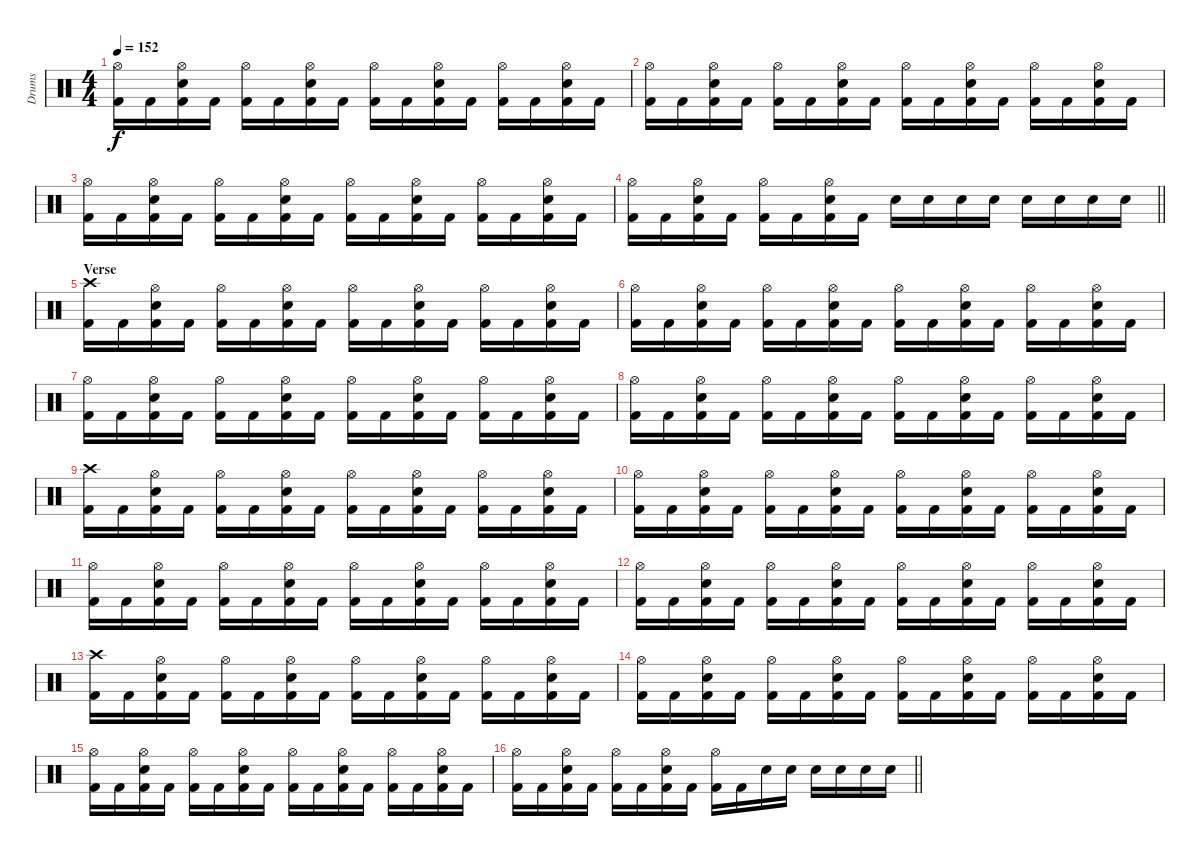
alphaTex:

\track ("Drums" "Drums") {instrument percussion}
\staff {score}
\articulation defaults
\ts (4 4)
\tempo 152
\clef neutral
\ks c
("Hi-Hat (open)" "Kick (hit) 2").16{dy f} "Kick (hit) 2".16 ("Hi-Hat (open)" "Snare (hit) 2" "Kick (hit) 2").16 "Kick (hit) 2".16 ("Hi-Hat (open)" "Kick (hit) 2").16 "Kick (hit) 2".16 ("Hi-Hat (open)" "Snare (hit) 2" "Kick (hit) 2").16 "Kick (hit) 2".16 ("Hi-Hat (open)" "Kick (hit) 2").16 "Kick (hit) 2".16 ("Hi-Hat (open)" "Snare (hit) 2" "Kick (hit) 2").16 "Kick (hit) 2".16 ("Hi-Hat (open)" "Kick (hit) 2").16 "Kick (hit) 2".16 ("Hi-Hat (open)" "Snare (hit) 2" "Kick (hit) 2").16 "Kick (hit) 2".16 |
("Hi-Hat (open)" "Kick (hit) 2").16 "Kick (hit) 2".16 ("Hi-Hat (open)" "Snare (hit) 2" "Kick (hit) 2").16 "Kick (hit) 2".16 ("Hi-Hat (open)" "Kick (hit) 2").16 "Kick (hit) 2".16 ("Hi-Hat (open)" "Snare (hit) 2" "Kick (hit) 2").16 "Kick (hit) 2".16 ("Hi-Hat (open)" "Kick (hit) 2").16 "Kick (hit) 2".16 ("Hi-Hat (open)" "Snare (hit) 2" "Kick (hit) 2").16 "Kick (hit) 2".16 ("Hi-Hat (open)" "Kick (hit) 2").16 "Kick (hit) 2".16 ("Hi-Hat (open)" "Snare (hit) 2" "Kick (hit) 2").16 "Kick (hit) 2".16 |
("Hi-Hat (open)" "Kick (hit) 2").16 "Kick (hit) 2".16 ("Hi-Hat (open)" "Snare (hit) 2" "Kick (hit) 2").16 "Kick (hit) 2".16 ("Hi-Hat (open)" "Kick (hit) 2").16 "Kick (hit) 2".16 ("Hi-Hat (open)" "Snare (hit) 2" "Kick (hit) 2").16 "Kick (hit) 2".16 ("Hi-Hat (open)" "Kick (hit) 2").16 "Kick (hit) 2".16 ("Hi-Hat (open)" "Snare (hit) 2" "Kick (hit) 2").16 "Kick (hit) 2".16 ("Hi-Hat (open)" "Kick (hit) 2").16 "Kick (hit) 2".16 ("Hi-Hat (open)" "Snare (hit) 2" "Kick (hit) 2").16 "Kick (hit) 2".16 |
\barLineRight lightlight
("Hi-Hat (open)" "Kick (hit) 2").16 "Kick (hit) 2".16 ("Hi-Hat (open)" "Snare (hit) 2" "Kick (hit) 2").16 "Kick (hit) 2".16 ("Hi-Hat (open)" "Kick (hit) 2").16 "Kick (hit) 2".16 ("Hi-Hat (open)" "Snare (hit) 2" "Kick (hit) 2").16 "Kick (hit) 2".16 "Snare (hit) 2".16 "Snare (hit) 2".16 "Snare (hit) 2".16 "Snare (hit) 2".16 "Snare (hit) 2".16 "Snare (hit) 2".16 "Snare (hit) 2".16 "Snare (hit) 2".16 |
\section ("" "Verse")
("Crash high (hit)" "Kick (hit) 2").16 "Kick (hit) 2".16 ("Hi-Hat (open)" "Snare (hit) 2" "Kick (hit) 2").16 "Kick (hit) 2".16 ("Hi-Hat (open)" "Kick (hit) 2").16 "Kick (hit) 2".16 ("Hi-Hat (open)" "Snare (hit) 2" "Kick (hit) 2").16 "Kick (hit) 2".16 ("Hi-Hat (open)" "Kick (hit) 2").16 "Kick (hit) 2".16 ("Hi-Hat (open)" "Snare (hit) 2" "Kick (hit) 2").16 "Kick (hit) 2".16 ("Hi-Hat (open)" "Kick (hit) 2").16 "Kick (hit) 2".16 ("Hi-Hat (open)" "Snare (hit) 2" "Kick (hit) 2").16 "Kick (hit) 2".16 |
("Hi-Hat (open)" "Kick (hit) 2").16 "Kick (hit) 2".16 ("Hi-Hat (open)" "Snare (hit) 2" "Kick (hit) 2").16 "Kick (hit) 2".16 ("Hi-Hat (open)" "Kick (hit) 2").16 "Kick (hit) 2".16 ("Hi-Hat (open)" "Snare (hit) 2" "Kick (hit) 2").16 "Kick (hit) 2".16 ("Hi-Hat (open)" "Kick (hit) 2").16 "Kick (hit) 2".16 ("Hi-Hat (open)" "Snare (hit) 2" "Kick (hit) 2").16 "Kick (hit) 2".16 ("Hi-Hat (open)" "Kick (hit) 2").16 "Kick (hit) 2".16 ("Hi-Hat (open)" "Snare (hit) 2" "Kick (hit) 2").16 "Kick (hit) 2".16 |
("Hi-Hat (open)" "Kick (hit) 2").16 "Kick (hit) 2".16 ("Hi-Hat (open)" "Snare (hit) 2" "Kick (hit) 2").16 "Kick (hit) 2".16 ("Hi-Hat (open)" "Kick (hit) 2").16 "Kick (hit) 2".16 ("Hi-Hat (open)" "Snare (hit) 2" "Kick (hit) 2").16 "Kick (hit) 2".16 ("Hi-Hat (open)" "Kick (hit) 2").16 "Kick (hit) 2".16 ("Hi-Hat (open)" "Snare (hit) 2" "Kick (hit) 2").16 "Kick (hit) 2".16 ("Hi-Hat (open)" "Kick (hit) 2").16 "Kick (hit) 2".16 ("Hi-Hat (open)" "Snare (hit) 2" "Kick (hit) 2").16 "Kick (hit) 2".16 |
("Hi-Hat (open)" "Kick (hit) 2").16 "Kick (hit) 2".16 ("Hi-Hat (open)" "Snare (hit) 2" "Kick (hit) 2").16 "Kick (hit) 2".16 ("Hi-Hat (open)" "Kick (hit) 2").16 "Kick (hit) 2".16 ("Hi-Hat (open)" "Snare (hit) 2" "Kick (hit) 2").16 "Kick (hit) 2".16 ("Hi-Hat (open)" "Kick (hit) 2").16 "Kick (hit) 2".16 ("Hi-Hat (open)" "Snare (hit) 2" "Kick (hit) 2").16 "Kick (hit) 2".16 ("Hi-Hat (open)" "Kick (hit) 2").16 "Kick (hit) 2".16 ("Hi-Hat (open)" "Snare (hit) 2" "Kick (hit) 2").16 "Kick (hit) 2".16 |
("Crash high (hit)" "Kick (hit) 2").16 "Kick (hit) 2".16 ("Hi-Hat (open)" "Snare (hit) 2" "Kick (hit) 2").16 "Kick (hit) 2".16 ("Hi-Hat (open)" "Kick (hit) 2").16 "Kick (hit) 2".16 ("Hi-Hat (open)" "Snare (hit) 2" "Kick (hit) 2").16 "Kick (hit) 2".16 ("Hi-Hat (open)" "Kick (hit) 2").16 "Kick (hit) 2".16 ("Hi-Hat (open)" "Snare (hit) 2" "Kick (hit) 2").16 "Kick (hit) 2".16 ("Hi-Hat (open)" "Kick (hit) 2").16 "Kick (hit) 2".16 ("Hi-Hat (open)" "Snare (hit) 2" "Kick (hit) 2").16 "Kick (hit) 2".16 |
("Hi-Hat (open)" "Kick (hit) 2").16 "Kick (hit) 2".16 ("Hi-Hat (open)" "Snare (hit) 2" "Kick (hit) 2").16 "Kick (hit) 2".16 ("Hi-Hat (open)" "Kick (hit) 2").16 "Kick (hit) 2".16 ("Hi-Hat (open)" "Snare (hit) 2" "Kick (hit) 2").16 "Kick (hit) 2".16 ("Hi-Hat (open)" "Kick (hit) 2").16 "Kick (hit) 2".16 ("Hi-Hat (open)" "Snare (hit) 2" "Kick (hit) 2").16 "Kick (hit) 2".16 ("Hi-Hat (open)" "Kick (hit) 2").16 "Kick (hit) 2".16 ("Hi-Hat (open)" "Snare (hit) 2" "Kick (hit) 2").16 "Kick (hit) 2".16 |
("Hi-Hat (open)" "Kick (hit) 2").16 "Kick (hit) 2".16 ("Hi-Hat (open)" "Snare (hit) 2" "Kick (hit) 2").16 "Kick (hit) 2".16 ("Hi-Hat (open)" "Kick (hit) 2").16 "Kick (hit) 2".16 ("Hi-Hat (open)" "Snare (hit) 2" "Kick (hit) 2").16 "Kick (hit) 2".16 ("Hi-Hat (open)" "Kick (hit) 2").16 "Kick (hit) 2".16 ("Hi-Hat (open)" "Snare (hit) 2" "Kick (hit) 2").16 "Kick (hit) 2".16 ("Hi-Hat (open)" "Kick (hit) 2").16 "Kick (hit) 2".16 ("Hi-Hat (open)" "Snare (hit) 2" "Kick (hit) 2").16 "Kick (hit) 2".16 |
("Hi-Hat (open)" "Kick (hit) 2").16 "Kick (hit) 2".16 ("Hi-Hat (open)" "Snare (hit) 2" "Kick (hit) 2").16 "Kick (hit) 2".16 ("Hi-Hat (open)" "Kick (hit) 2").16 "Kick (hit) 2".16 ("Hi-Hat (open)" "Snare (hit) 2" "Kick (hit) 2").16 "Kick (hit) 2".16 ("Hi-Hat (open)" "Kick (hit) 2").16 "Kick (hit) 2".16 ("Hi-Hat (open)" "Snare (hit) 2" "Kick (hit) 2").16 "Kick (hit) 2".16 ("Hi-Hat (open)" "Kick (hit) 2").16 "Kick (hit) 2".16 ("Hi-Hat (open)" "Snare (hit) 2" "Kick (hit) 2").16 "Kick (hit) 2".16 |
("Crash high (hit)" "Kick (hit) 2").16 "Kick (hit) 2".16 ("Hi-Hat (open)" "Snare (hit) 2" "Kick (hit) 2").16 "Kick (hit) 2".16 ("Hi-Hat (open)" "Kick (hit) 2").16 "Kick (hit) 2".16 ("Hi-Hat (open)" "Snare (hit) 2" "Kick (hit) 2").16 "Kick (hit) 2".16 ("Hi-Hat (open)" "Kick (hit) 2").16 "Kick (hit) 2".16 ("Hi-Hat (open)" "Snare (hit) 2" "Kick (hit) 2").16 "Kick (hit) 2".16 ("Hi-Hat (open)" "Kick (hit) 2").16 "Kick (hit) 2".16 ("Hi-Hat (open)" "Snare (hit) 2" "Kick (hit) 2").16 "Kick (hit) 2".16 |
("Hi-Hat (open)" "Kick (hit) 2").16 "Kick (hit) 2".16 ("Hi-Hat (open)" "Snare (hit) 2" "Kick (hit) 2").16 "Kick (hit) 2".16 ("Hi-Hat (open)" "Kick (hit) 2").16 "Kick (hit) 2".16 ("Hi-Hat (open)" "Snare (hit) 2" "Kick (hit) 2").16 "Kick (hit) 2".16 ("Hi-Hat (open)" "Kick (hit) 2").16 "Kick (hit) 2".16 ("Hi-Hat (open)" "Snare (hit) 2" "Kick (hit) 2").16 "Kick (hit) 2".16 ("Hi-Hat (open)" "Kick (hit) 2").16 "Kick (hit) 2".16 ("Hi-Hat (open)" "Snare (hit) 2" "Kick (hit) 2").16 "Kick (hit) 2".16 |
("Hi-Hat (open)" "Kick (hit) 2").16 "Kick (hit) 2".16 ("Hi-Hat (open)" "Snare (hit) 2" "Kick (hit) 2").16 "Kick (hit) 2".16 ("Hi-Hat (open)" "Kick (hit) 2").16 "Kick (hit) 2".16 ("Hi-Hat (open)" "Snare (hit) 2" "Kick (hit) 2").16 "Kick (hit) 2".16 ("Hi-Hat (open)" "Kick (hit) 2").16 "Kick (hit) 2".16 ("Hi-Hat (open)" "Snare (hit) 2" "Kick (hit) 2").16 "Kick (hit) 2".16 ("Hi-Hat (open)" "Kick (hit) 2").16 "Kick (hit) 2".16 ("Hi-Hat (open)" "Snare (hit) 2" "Kick (hit) 2").16 "Kick (hit) 2".16 |
\barLineRight lightlight
("Hi-Hat (open)" "Kick (hit) 2").16 "Kick (hit) 2".16 ("Hi-Hat (open)" "Snare (hit) 2" "Kick (hit) 2").16 "Kick (hit) 2".16 ("Hi-Hat (open)" "Kick (hit) 2").16 "Kick (hit) 2".16 ("Hi-Hat (open)" "Snare (hit) 2" "Kick (hit) 2").16 "Kick (hit) 2".16 ("Hi-Hat (open)" "Kick (hit) 2").16 "Kick (hit) 2".16 "Snare (hit) 2".16 "Snare (hit) 2".16 "Snare (hit) 2".16 "Snare (hit) 2".16 "Snare (hit) 2".16 "Snare (hit) 2".16
